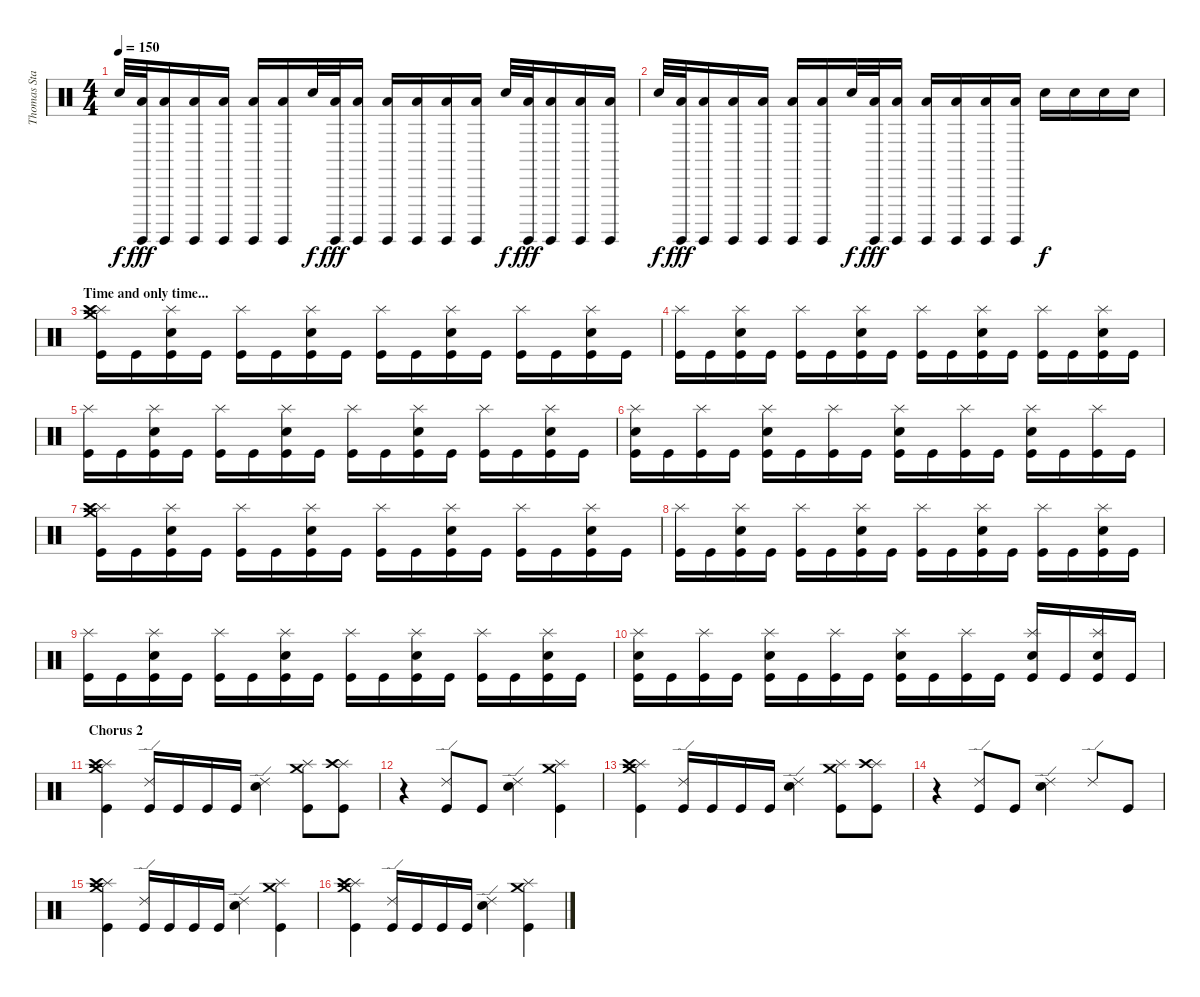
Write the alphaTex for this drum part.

\track ("Thomas Stauch" "Thomas Sta") {instrument percussion}
\staff {score}
\articulation defaults
\ts (4 4)
\tempo 150
\clef neutral
\ks c "Electric Snare (hit)".32{dy f}
("Surdo (hit)" "Low Floor Tom (hit)").32{dy fff} ("Surdo (hit)" "Low Floor Tom (hit)").16 ("Surdo (hit)" "Low Floor Tom (hit)").16 ("Surdo (hit)" "Low Floor Tom (hit)").16 ("Surdo (hit)" "Low Floor Tom (hit)").16 ("Surdo (hit)" "Low Floor Tom (hit)").16 "Electric Snare (hit)".32{dy f} ("Surdo (hit)" "Low Floor Tom (hit)").32{dy fff} ("Surdo (hit)" "Low Floor Tom (hit)").16 ("Surdo (hit)" "Low Floor Tom (hit)").16 ("Surdo (hit)" "Low Floor Tom (hit)").16 ("Surdo (hit)" "Low Floor Tom (hit)").16 ("Surdo (hit)" "Low Floor Tom (hit)").16 "Electric Snare (hit)".32{dy f} ("Surdo (hit)" "Low Floor Tom (hit)").32{dy fff} ("Surdo (hit)" "Low Floor Tom (hit)").16 ("Surdo (hit)" "Low Floor Tom (hit)").16 ("Surdo (hit)" "Low Floor Tom (hit)").16 |
"Electric Snare (hit)".32{dy f} ("Surdo (hit)" "Low Floor Tom (hit)").32{dy fff} ("Surdo (hit)" "Low Floor Tom (hit)").16 ("Surdo (hit)" "Low Floor Tom (hit)").16 ("Surdo (hit)" "Low Floor Tom (hit)").16 ("Surdo (hit)" "Low Floor Tom (hit)").16 ("Surdo (hit)" "Low Floor Tom (hit)").16 "Electric Snare (hit)".32{dy f} ("Surdo (hit)" "Low Floor Tom (hit)").32{dy fff} ("Surdo (hit)" "Low Floor Tom (hit)").16 ("Surdo (hit)" "Low Floor Tom (hit)").16 ("Surdo (hit)" "Low Floor Tom (hit)").16 ("Surdo (hit)" "Low Floor Tom (hit)").16 ("Surdo (hit)" "Low Floor Tom (hit)").16 "Electric Snare (hit)".16{dy f} "Electric Snare (hit)".16 "Electric Snare (hit)".16 "Electric Snare (hit)".16 |
\section ("" "Time and only time...")
("Crash medium (hit)" "Splash (hit)" "Crash high (hit)" "Kick (hit)").16 "Kick (hit)".16 ("Splash (hit)" "Electric Snare (hit)" "Kick (hit)").16 "Kick (hit)".16 ("Splash (hit)" "Kick (hit)").16 "Kick (hit)".16 ("Splash (hit)" "Electric Snare (hit)" "Kick (hit)").16 "Kick (hit)".16 ("Splash (hit)" "Kick (hit)").16 "Kick (hit)".16 ("Splash (hit)" "Electric Snare (hit)" "Kick (hit)").16 "Kick (hit)".16 ("Splash (hit)" "Kick (hit)").16 "Kick (hit)".16 ("Splash (hit)" "Electric Snare (hit)" "Kick (hit)").16 "Kick (hit)".16 |
("Splash (hit)" "Kick (hit)").16 "Kick (hit)".16 ("Splash (hit)" "Electric Snare (hit)" "Kick (hit)").16 "Kick (hit)".16 ("Splash (hit)" "Kick (hit)").16 "Kick (hit)".16 ("Splash (hit)" "Electric Snare (hit)" "Kick (hit)").16 "Kick (hit)".16 ("Splash (hit)" "Kick (hit)").16 "Kick (hit)".16 ("Splash (hit)" "Electric Snare (hit)" "Kick (hit)").16 "Kick (hit)".16 ("Splash (hit)" "Kick (hit)").16 "Kick (hit)".16 ("Splash (hit)" "Electric Snare (hit)" "Kick (hit)").16 "Kick (hit)".16 |
("Splash (hit)" "Kick (hit)").16 "Kick (hit)".16 ("Splash (hit)" "Electric Snare (hit)" "Kick (hit)").16 "Kick (hit)".16 ("Splash (hit)" "Kick (hit)").16 "Kick (hit)".16 ("Splash (hit)" "Electric Snare (hit)" "Kick (hit)").16 "Kick (hit)".16 ("Splash (hit)" "Kick (hit)").16 "Kick (hit)".16 ("Splash (hit)" "Electric Snare (hit)" "Kick (hit)").16 "Kick (hit)".16 ("Splash (hit)" "Kick (hit)").16 "Kick (hit)".16 ("Splash (hit)" "Electric Snare (hit)" "Kick (hit)").16 "Kick (hit)".16 |
("Splash (hit)" "Electric Snare (hit)" "Kick (hit)").16 "Kick (hit)".16 ("Splash (hit)" "Kick (hit)").16 "Kick (hit)".16 ("Splash (hit)" "Electric Snare (hit)" "Kick (hit)").16 "Kick (hit)".16 ("Splash (hit)" "Kick (hit)").16 "Kick (hit)".16 ("Splash (hit)" "Electric Snare (hit)" "Kick (hit)").16 "Kick (hit)".16 ("Splash (hit)" "Kick (hit)").16 "Kick (hit)".16 ("Splash (hit)" "Electric Snare (hit)" "Kick (hit)").16 "Kick (hit)".16 ("Splash (hit)" "Kick (hit)").16 "Kick (hit)".16 |
("Crash medium (hit)" "Splash (hit)" "Crash high (hit)" "Kick (hit)").16 "Kick (hit)".16 ("Splash (hit)" "Electric Snare (hit)" "Kick (hit)").16 "Kick (hit)".16 ("Splash (hit)" "Kick (hit)").16 "Kick (hit)".16 ("Splash (hit)" "Electric Snare (hit)" "Kick (hit)").16 "Kick (hit)".16 ("Splash (hit)" "Kick (hit)").16 "Kick (hit)".16 ("Splash (hit)" "Electric Snare (hit)" "Kick (hit)").16 "Kick (hit)".16 ("Splash (hit)" "Kick (hit)").16 "Kick (hit)".16 ("Splash (hit)" "Electric Snare (hit)" "Kick (hit)").16 "Kick (hit)".16 |
("Splash (hit)" "Kick (hit)").16 "Kick (hit)".16 ("Splash (hit)" "Electric Snare (hit)" "Kick (hit)").16 "Kick (hit)".16 ("Splash (hit)" "Kick (hit)").16 "Kick (hit)".16 ("Splash (hit)" "Electric Snare (hit)" "Kick (hit)").16 "Kick (hit)".16 ("Splash (hit)" "Kick (hit)").16 "Kick (hit)".16 ("Splash (hit)" "Electric Snare (hit)" "Kick (hit)").16 "Kick (hit)".16 ("Splash (hit)" "Kick (hit)").16 "Kick (hit)".16 ("Splash (hit)" "Electric Snare (hit)" "Kick (hit)").16 "Kick (hit)".16 |
("Splash (hit)" "Kick (hit)").16 "Kick (hit)".16 ("Splash (hit)" "Electric Snare (hit)" "Kick (hit)").16 "Kick (hit)".16 ("Splash (hit)" "Kick (hit)").16 "Kick (hit)".16 ("Splash (hit)" "Electric Snare (hit)" "Kick (hit)").16 "Kick (hit)".16 ("Splash (hit)" "Kick (hit)").16 "Kick (hit)".16 ("Splash (hit)" "Electric Snare (hit)" "Kick (hit)").16 "Kick (hit)".16 ("Splash (hit)" "Kick (hit)").16 "Kick (hit)".16 ("Splash (hit)" "Electric Snare (hit)" "Kick (hit)").16 "Kick (hit)".16 |
("Splash (hit)" "Electric Snare (hit)" "Kick (hit)").16 "Kick (hit)".16 ("Splash (hit)" "Kick (hit)").16 "Kick (hit)".16 ("Splash (hit)" "Electric Snare (hit)" "Kick (hit)").16 "Kick (hit)".16 ("Splash (hit)" "Kick (hit)").16 "Kick (hit)".16 ("Splash (hit)" "Electric Snare (hit)" "Kick (hit)").16 "Kick (hit)".16 ("Splash (hit)" "Kick (hit)").16 "Kick (hit)".16 ("Splash (hit)" "Electric Snare (hit)" "Kick (hit)").16 "Kick (hit)".16 ("Splash (hit)" "Electric Snare (hit)" "Kick (hit)").16 "Kick (hit)".16 |
\section ("" "Chorus 2")
("Crash medium (hit)" "Splash (hit)" "Crash high (hit)" "Kick (hit)").4 ("Ride (edge) 2" "Kick (hit)").16 "Kick (hit)".16 "Kick (hit)".16 "Kick (hit)".16 ("Ride (edge) 2" "Electric Snare (hit)").4 ("Crash medium (hit)" "Splash (hit)" "Kick (hit)").8 ("Splash (hit)" "Crash high (hit)" "Kick (hit)").8 |
r.4 ("Ride (edge) 2" "Kick (hit)").8 "Kick (hit)".8 ("Ride (edge) 2" "Electric Snare (hit)").4 ("Crash medium (hit)" "Splash (hit)" "Kick (hit)").4 |
("Crash medium (hit)" "Splash (hit)" "Crash high (hit)" "Kick (hit)").4 ("Ride (edge) 2" "Kick (hit)").16 "Kick (hit)".16 "Kick (hit)".16 "Kick (hit)".16 ("Ride (edge) 2" "Electric Snare (hit)").4 ("Crash medium (hit)" "Splash (hit)" "Kick (hit)").8 ("Splash (hit)" "Crash high (hit)" "Kick (hit)").8 |
r.4 ("Ride (edge) 2" "Kick (hit)").8 "Kick (hit)".8 ("Ride (edge) 2" "Electric Snare (hit)").4 "Ride (edge) 2".8 "Kick (hit)".8 |
("Crash medium (hit)" "Splash (hit)" "Crash high (hit)" "Kick (hit)").4 ("Ride (edge) 2" "Kick (hit)").16 "Kick (hit)".16 "Kick (hit)".16 "Kick (hit)".16 ("Ride (edge) 2" "Electric Snare (hit)").4 ("Crash medium (hit)" "Splash (hit)" "Kick (hit)").4 |
("Crash medium (hit)" "Splash (hit)" "Crash high (hit)" "Kick (hit)").4 ("Ride (edge) 2" "Kick (hit)").16 "Kick (hit)".16 "Kick (hit)".16 "Kick (hit)".16 ("Ride (edge) 2" "Electric Snare (hit)").4 ("Crash medium (hit)" "Splash (hit)" "Kick (hit)").4
